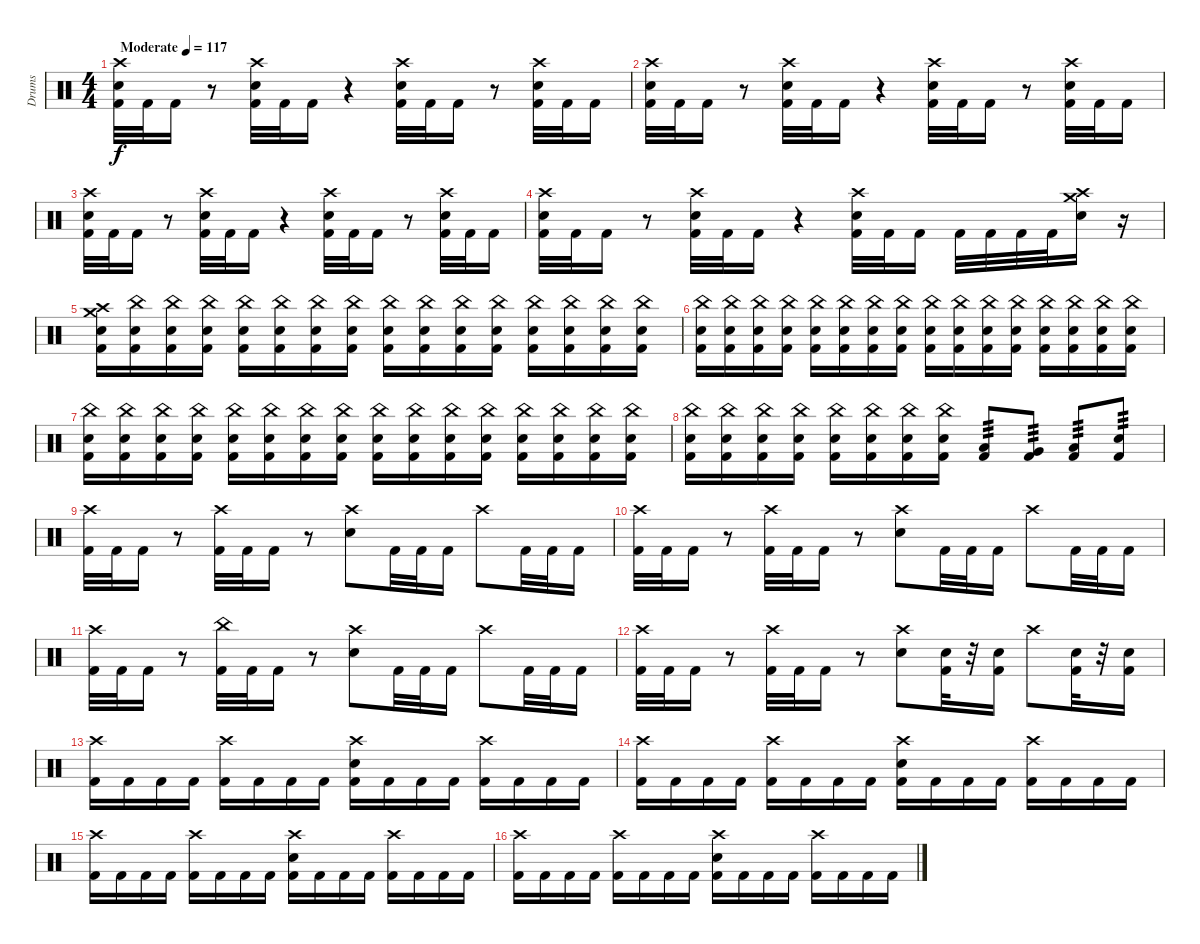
\track ("Drums" "Drums") {instrument percussion}
\staff {score}
\articulation defaults
\ts (4 4)
\tempo (117 "Moderate")
\clef neutral
\ks c
("Crash high (hit)" "Electric Snare (hit)" "Kick (hit) 2").32{dy f} "Kick (hit) 2".32 "Kick (hit) 2".16 r.8 ("Crash high (hit)" "Electric Snare (hit)" "Kick (hit) 2").32 "Kick (hit) 2".32 "Kick (hit) 2".16 r.4 ("Crash high (hit)" "Electric Snare (hit)" "Kick (hit) 2").32 "Kick (hit) 2".32 "Kick (hit) 2".16 r.8 ("Crash high (hit)" "Electric Snare (hit)" "Kick (hit) 2").32 "Kick (hit) 2".32 "Kick (hit) 2".16 |
("Crash high (hit)" "Electric Snare (hit)" "Kick (hit) 2").32 "Kick (hit) 2".32 "Kick (hit) 2".16 r.8 ("Crash high (hit)" "Electric Snare (hit)" "Kick (hit) 2").32 "Kick (hit) 2".32 "Kick (hit) 2".16 r.4 ("Crash high (hit)" "Electric Snare (hit)" "Kick (hit) 2").32 "Kick (hit) 2".32 "Kick (hit) 2".16 r.8 ("Crash high (hit)" "Electric Snare (hit)" "Kick (hit) 2").32 "Kick (hit) 2".32 "Kick (hit) 2".16 |
("Crash high (hit)" "Electric Snare (hit)" "Kick (hit) 2").32 "Kick (hit) 2".32 "Kick (hit) 2".16 r.8 ("Crash high (hit)" "Electric Snare (hit)" "Kick (hit) 2").32 "Kick (hit) 2".32 "Kick (hit) 2".16 r.4 ("Crash high (hit)" "Electric Snare (hit)" "Kick (hit) 2").32 "Kick (hit) 2".32 "Kick (hit) 2".16 r.8 ("Crash high (hit)" "Electric Snare (hit)" "Kick (hit) 2").32 "Kick (hit) 2".32 "Kick (hit) 2".16 |
("Crash high (hit)" "Electric Snare (hit)" "Kick (hit) 2").32 "Kick (hit) 2".32 "Kick (hit) 2".16 r.8 ("Crash high (hit)" "Electric Snare (hit)" "Kick (hit) 2").32 "Kick (hit) 2".32 "Kick (hit) 2".16 r.4 ("Crash high (hit)" "Electric Snare (hit)" "Kick (hit) 2").32 "Kick (hit) 2".32 "Kick (hit) 2".16 "Kick (hit) 2".32 "Kick (hit) 2".32 "Kick (hit) 2".32 "Kick (hit) 2".32 ("Crash high (hit)" "Crash medium (hit)" "Electric Snare (hit)").16 r.16 |
("Crash medium (hit)" "Crash high (hit)" "Electric Snare (hit)" "Kick (hit) 2").16 ("China (hit)" "Electric Snare (hit)" "Kick (hit) 2").16 ("China (hit)" "Electric Snare (hit)" "Kick (hit) 2").16 ("China (hit)" "Electric Snare (hit)" "Kick (hit) 2").16 ("China (hit)" "Electric Snare (hit)" "Kick (hit) 2").16 ("China (hit)" "Electric Snare (hit)" "Kick (hit) 2").16 ("China (hit)" "Electric Snare (hit)" "Kick (hit) 2").16 ("China (hit)" "Electric Snare (hit)" "Kick (hit) 2").16 ("China (hit)" "Electric Snare (hit)" "Kick (hit) 2").16 ("China (hit)" "Electric Snare (hit)" "Kick (hit) 2").16 ("China (hit)" "Electric Snare (hit)" "Kick (hit) 2").16 ("China (hit)" "Electric Snare (hit)" "Kick (hit) 2").16 ("China (hit)" "Electric Snare (hit)" "Kick (hit) 2").16 ("China (hit)" "Electric Snare (hit)" "Kick (hit) 2").16 ("China (hit)" "Electric Snare (hit)" "Kick (hit) 2").16 ("China (hit)" "Electric Snare (hit)" "Kick (hit) 2").16 |
("China (hit)" "Electric Snare (hit)" "Kick (hit) 2").16 ("China (hit)" "Electric Snare (hit)" "Kick (hit) 2").16 ("China (hit)" "Electric Snare (hit)" "Kick (hit) 2").16 ("China (hit)" "Electric Snare (hit)" "Kick (hit) 2").16 ("China (hit)" "Electric Snare (hit)" "Kick (hit) 2").16 ("China (hit)" "Electric Snare (hit)" "Kick (hit) 2").16 ("China (hit)" "Electric Snare (hit)" "Kick (hit) 2").16 ("China (hit)" "Electric Snare (hit)" "Kick (hit) 2").16 ("China (hit)" "Electric Snare (hit)" "Kick (hit) 2").16 ("China (hit)" "Electric Snare (hit)" "Kick (hit) 2").16 ("China (hit)" "Electric Snare (hit)" "Kick (hit) 2").16 ("China (hit)" "Electric Snare (hit)" "Kick (hit) 2").16 ("China (hit)" "Electric Snare (hit)" "Kick (hit) 2").16 ("China (hit)" "Electric Snare (hit)" "Kick (hit) 2").16 ("China (hit)" "Electric Snare (hit)" "Kick (hit) 2").16 ("China (hit)" "Electric Snare (hit)" "Kick (hit) 2").16 |
("China (hit)" "Electric Snare (hit)" "Kick (hit) 2").16 ("China (hit)" "Electric Snare (hit)" "Kick (hit) 2").16 ("China (hit)" "Electric Snare (hit)" "Kick (hit) 2").16 ("China (hit)" "Electric Snare (hit)" "Kick (hit) 2").16 ("China (hit)" "Electric Snare (hit)" "Kick (hit) 2").16 ("China (hit)" "Electric Snare (hit)" "Kick (hit) 2").16 ("China (hit)" "Electric Snare (hit)" "Kick (hit) 2").16 ("China (hit)" "Electric Snare (hit)" "Kick (hit) 2").16 ("China (hit)" "Electric Snare (hit)" "Kick (hit) 2").16 ("China (hit)" "Electric Snare (hit)" "Kick (hit) 2").16 ("China (hit)" "Electric Snare (hit)" "Kick (hit) 2").16 ("China (hit)" "Electric Snare (hit)" "Kick (hit) 2").16 ("China (hit)" "Electric Snare (hit)" "Kick (hit) 2").16 ("China (hit)" "Electric Snare (hit)" "Kick (hit) 2").16 ("China (hit)" "Electric Snare (hit)" "Kick (hit) 2").16 ("China (hit)" "Electric Snare (hit)" "Kick (hit) 2").16 |
("China (hit)" "Electric Snare (hit)" "Kick (hit) 2").16 ("China (hit)" "Electric Snare (hit)" "Kick (hit) 2").16 ("China (hit)" "Electric Snare (hit)" "Kick (hit) 2").16 ("China (hit)" "Electric Snare (hit)" "Kick (hit) 2").16 ("China (hit)" "Electric Snare (hit)" "Kick (hit) 2").16 ("China (hit)" "Electric Snare (hit)" "Kick (hit) 2").16 ("China (hit)" "Electric Snare (hit)" "Kick (hit) 2").16 ("China (hit)" "Electric Snare (hit)" "Kick (hit) 2").16 ("Low Tom (hit)" "Kick (hit) 2").8{tp 3} ("Very Low Tom (hit)" "Kick (hit) 2").8{tp 3} ("Low Floor Tom (hit)" "Kick (hit) 2").8{tp 3} ("Electric Snare (hit)" "Kick (hit) 2").8{tp 3} |
("Crash high (hit)" "Kick (hit) 2").32 "Kick (hit) 2".32 "Kick (hit) 2".16 r.8 ("Crash high (hit)" "Kick (hit) 2").32 "Kick (hit) 2".32 "Kick (hit) 2".16 r.8 ("Crash high (hit)" "Electric Snare (hit)").8 "Kick (hit) 2".32 "Kick (hit) 2".32 "Kick (hit) 2".16 "Crash high (hit)".8 "Kick (hit) 2".32 "Kick (hit) 2".32 "Kick (hit) 2".16 |
("Crash high (hit)" "Kick (hit) 2").32 "Kick (hit) 2".32 "Kick (hit) 2".16 r.8 ("Crash high (hit)" "Kick (hit) 2").32 "Kick (hit) 2".32 "Kick (hit) 2".16 r.8 ("Crash high (hit)" "Electric Snare (hit)").8 "Kick (hit) 2".32 "Kick (hit) 2".32 "Kick (hit) 2".16 "Crash high (hit)".8 "Kick (hit) 2".32 "Kick (hit) 2".32 "Kick (hit) 2".16 |
("Crash high (hit)" "Kick (hit) 2").32 "Kick (hit) 2".32 "Kick (hit) 2".16 r.8 ("China (hit)" "Kick (hit) 2").32 "Kick (hit) 2".32 "Kick (hit) 2".16 r.8 ("Crash high (hit)" "Electric Snare (hit)").8 "Kick (hit) 2".32 "Kick (hit) 2".32 "Kick (hit) 2".16 "Crash high (hit)".8 "Kick (hit) 2".32 "Kick (hit) 2".32 "Kick (hit) 2".16 |
("Crash high (hit)" "Kick (hit) 2").32 "Kick (hit) 2".32 "Kick (hit) 2".16 r.8 ("Crash high (hit)" "Kick (hit) 2").32 "Kick (hit) 2".32 "Kick (hit) 2".16 r.8 ("Crash high (hit)" "Electric Snare (hit)").8 ("Electric Snare (hit)" "Kick (hit) 2").32 r.32 ("Electric Snare (hit)" "Kick (hit) 2").16 "Crash high (hit)".8 ("Electric Snare (hit)" "Kick (hit) 2").32 r.32 ("Electric Snare (hit)" "Kick (hit) 2").16 |
("Crash high (hit)" "Kick (hit) 2").16 "Kick (hit) 2".16 "Kick (hit) 2".16 "Kick (hit) 2".16 ("Crash high (hit)" "Kick (hit) 2").16 "Kick (hit) 2".16 "Kick (hit) 2".16 "Kick (hit) 2".16 ("Crash high (hit)" "Electric Snare (hit)" "Kick (hit) 2").16 "Kick (hit) 2".16 "Kick (hit) 2".16 "Kick (hit) 2".16 ("Crash high (hit)" "Kick (hit) 2").16 "Kick (hit) 2".16 "Kick (hit) 2".16 "Kick (hit) 2".16 |
("Crash high (hit)" "Kick (hit) 2").16 "Kick (hit) 2".16 "Kick (hit) 2".16 "Kick (hit) 2".16 ("Crash high (hit)" "Kick (hit) 2").16 "Kick (hit) 2".16 "Kick (hit) 2".16 "Kick (hit) 2".16 ("Crash high (hit)" "Electric Snare (hit)" "Kick (hit) 2").16 "Kick (hit) 2".16 "Kick (hit) 2".16 "Kick (hit) 2".16 ("Crash high (hit)" "Kick (hit) 2").16 "Kick (hit) 2".16 "Kick (hit) 2".16 "Kick (hit) 2".16 |
("Crash high (hit)" "Kick (hit) 2").16 "Kick (hit) 2".16 "Kick (hit) 2".16 "Kick (hit) 2".16 ("Crash high (hit)" "Kick (hit) 2").16 "Kick (hit) 2".16 "Kick (hit) 2".16 "Kick (hit) 2".16 ("Crash high (hit)" "Electric Snare (hit)" "Kick (hit) 2").16 "Kick (hit) 2".16 "Kick (hit) 2".16 "Kick (hit) 2".16 ("Crash high (hit)" "Kick (hit) 2").16 "Kick (hit) 2".16 "Kick (hit) 2".16 "Kick (hit) 2".16 |
("Crash high (hit)" "Kick (hit) 2").16 "Kick (hit) 2".16 "Kick (hit) 2".16 "Kick (hit) 2".16 ("Crash high (hit)" "Kick (hit) 2").16 "Kick (hit) 2".16 "Kick (hit) 2".16 "Kick (hit) 2".16 ("Crash high (hit)" "Electric Snare (hit)" "Kick (hit) 2").16 "Kick (hit) 2".16 "Kick (hit) 2".16 "Kick (hit) 2".16 ("Crash high (hit)" "Kick (hit) 2").16 "Kick (hit) 2".16 "Kick (hit) 2".16 "Kick (hit) 2".16
